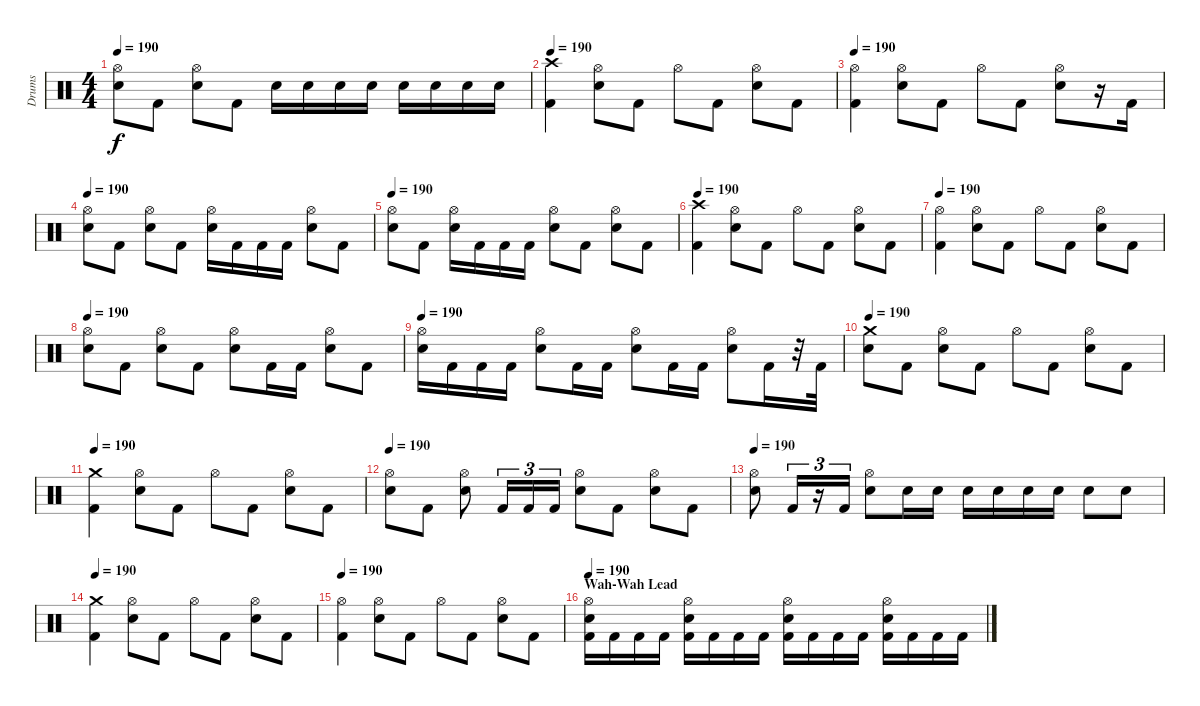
\track ("Drums" "Drums") {instrument percussion}
\staff {score}
\articulation defaults
\ts (4 4)
\tempo 190
\clef neutral
\ks c
("Hi-Hat (open)" "Electric Snare (hit)").8{dy f} "Kick (hit) 2".8 ("Hi-Hat (open)" "Electric Snare (hit)").8 "Kick (hit) 2".8 "Electric Snare (hit)".16 "Electric Snare (hit)".16 "Electric Snare (hit)".16 "Electric Snare (hit)".16 "Electric Snare (hit)".16 "Electric Snare (hit)".16 "Electric Snare (hit)".16 "Electric Snare (hit)".16 |
\tempo 190
("Crash high (hit)" "Kick (hit) 2").4 ("Hi-Hat (open)" "Electric Snare (hit)").8 "Kick (hit) 2".8 "Hi-Hat (open)".8 "Kick (hit) 2".8 ("Hi-Hat (open)" "Electric Snare (hit)").8 "Kick (hit) 2".8 |
\tempo 190
("Hi-Hat (open)" "Kick (hit) 2").4 ("Hi-Hat (open)" "Electric Snare (hit)").8 "Kick (hit) 2".8 "Hi-Hat (open)".8 "Kick (hit) 2".8 ("Hi-Hat (open)" "Electric Snare (hit)").8 r.16 "Kick (hit) 2".16 |
\tempo 190
("Hi-Hat (open)" "Electric Snare (hit)").8 "Kick (hit) 2".8 ("Hi-Hat (open)" "Electric Snare (hit)").8 "Kick (hit) 2".8 ("Hi-Hat (open)" "Electric Snare (hit)").16 "Kick (hit) 2".16 "Kick (hit) 2".16 "Kick (hit) 2".16 ("Hi-Hat (open)" "Electric Snare (hit)").8 "Kick (hit) 2".8 |
\tempo 190
("Hi-Hat (open)" "Electric Snare (hit)").8 "Kick (hit) 2".8 ("Hi-Hat (open)" "Electric Snare (hit)").16 "Kick (hit) 2".16 "Kick (hit) 2".16 "Kick (hit) 2".16 ("Hi-Hat (open)" "Electric Snare (hit)").8 "Kick (hit) 2".8 ("Hi-Hat (open)" "Electric Snare (hit)").8 "Kick (hit) 2".8 |
\tempo 190
("Crash high (hit)" "Kick (hit) 2").4 ("Hi-Hat (open)" "Electric Snare (hit)").8 "Kick (hit) 2".8 "Hi-Hat (open)".8 "Kick (hit) 2".8 ("Hi-Hat (open)" "Electric Snare (hit)").8 "Kick (hit) 2".8 |
\tempo 190
("Hi-Hat (open)" "Kick (hit) 2").4 ("Hi-Hat (open)" "Electric Snare (hit)").8 "Kick (hit) 2".8 "Hi-Hat (open)".8 "Kick (hit) 2".8 ("Hi-Hat (open)" "Electric Snare (hit)").8 "Kick (hit) 2".8 |
\tempo 190
("Hi-Hat (open)" "Electric Snare (hit)").8 "Kick (hit) 2".8 ("Hi-Hat (open)" "Electric Snare (hit)").8 "Kick (hit) 2".8 ("Hi-Hat (open)" "Electric Snare (hit)").8 "Kick (hit) 2".16 "Kick (hit) 2".16 ("Hi-Hat (open)" "Electric Snare (hit)").8 "Kick (hit) 2".8 |
\tempo 190
("Hi-Hat (open)" "Electric Snare (hit)").16 "Kick (hit) 2".16 "Kick (hit) 2".16 "Kick (hit) 2".16 ("Hi-Hat (open)" "Electric Snare (hit)").8 "Kick (hit) 2".16 "Kick (hit) 2".16 ("Hi-Hat (open)" "Electric Snare (hit)").8 "Kick (hit) 2".16 "Kick (hit) 2".16 ("Hi-Hat (open)" "Electric Snare (hit)").8 "Kick (hit) 2".16 r.32 "Kick (hit) 2".32 |
\tempo 190
("Crash medium (hit)" "Electric Snare (hit)").8 "Kick (hit) 2".8 ("Hi-Hat (open)" "Electric Snare (hit)").8 "Kick (hit) 2".8 "Hi-Hat (open)".8 "Kick (hit) 2".8 ("Hi-Hat (open)" "Electric Snare (hit)").8 "Kick (hit) 2".8 |
\tempo 190
("Crash medium (hit)" "Kick (hit) 2").4 ("Hi-Hat (open)" "Electric Snare (hit)").8 "Kick (hit) 2".8 "Hi-Hat (open)".8 "Kick (hit) 2".8 ("Hi-Hat (open)" "Electric Snare (hit)").8 "Kick (hit) 2".8 |
\tempo 190
("Hi-Hat (open)" "Electric Snare (hit)").8 "Kick (hit) 2".8 ("Hi-Hat (open)" "Electric Snare (hit)").8 "Kick (hit) 2".16{tu (3 2)} "Kick (hit) 2".16{tu (3 2)} "Kick (hit) 2".16{tu (3 2)} ("Hi-Hat (open)" "Electric Snare (hit)").8 "Kick (hit) 2".8 ("Hi-Hat (open)" "Electric Snare (hit)").8 "Kick (hit) 2".8 |
\tempo 190
("Hi-Hat (open)" "Electric Snare (hit)").8 "Kick (hit) 2".16{tu (3 2)} r.16{tu (3 2)} "Kick (hit) 2".16{tu (3 2)} ("Hi-Hat (open)" "Electric Snare (hit)").8 "Electric Snare (hit)".16 "Electric Snare (hit)".16 "Electric Snare (hit)".16 "Electric Snare (hit)".16 "Electric Snare (hit)".16 "Electric Snare (hit)".16 "Electric Snare (hit)".8 "Electric Snare (hit)".8 |
\tempo 190
("Crash medium (hit)" "Kick (hit) 2").4 ("Hi-Hat (open)" "Electric Snare (hit)").8 "Kick (hit) 2".8 "Hi-Hat (open)".8 "Kick (hit) 2".8 ("Hi-Hat (open)" "Electric Snare (hit)").8 "Kick (hit) 2".8 |
\tempo 190
("Hi-Hat (open)" "Kick (hit) 2").4 ("Hi-Hat (open)" "Electric Snare (hit)").8 "Kick (hit) 2".8 "Hi-Hat (open)".8 "Kick (hit) 2".8 ("Hi-Hat (open)" "Electric Snare (hit)").8 "Kick (hit) 2".8 |
\section ("" "Wah-Wah Lead")
\tempo 190
("Hi-Hat (open)" "Electric Snare (hit)" "Kick (hit) 2").16 "Kick (hit) 2".16 "Kick (hit) 2".16 "Kick (hit) 2".16 ("Hi-Hat (open)" "Electric Snare (hit)" "Kick (hit) 2").16 "Kick (hit) 2".16 "Kick (hit) 2".16 "Kick (hit) 2".16 ("Hi-Hat (open)" "Electric Snare (hit)" "Kick (hit) 2").16 "Kick (hit) 2".16 "Kick (hit) 2".16 "Kick (hit) 2".16 ("Hi-Hat (open)" "Electric Snare (hit)" "Kick (hit) 2").16 "Kick (hit) 2".16 "Kick (hit) 2".16 "Kick (hit) 2".16
